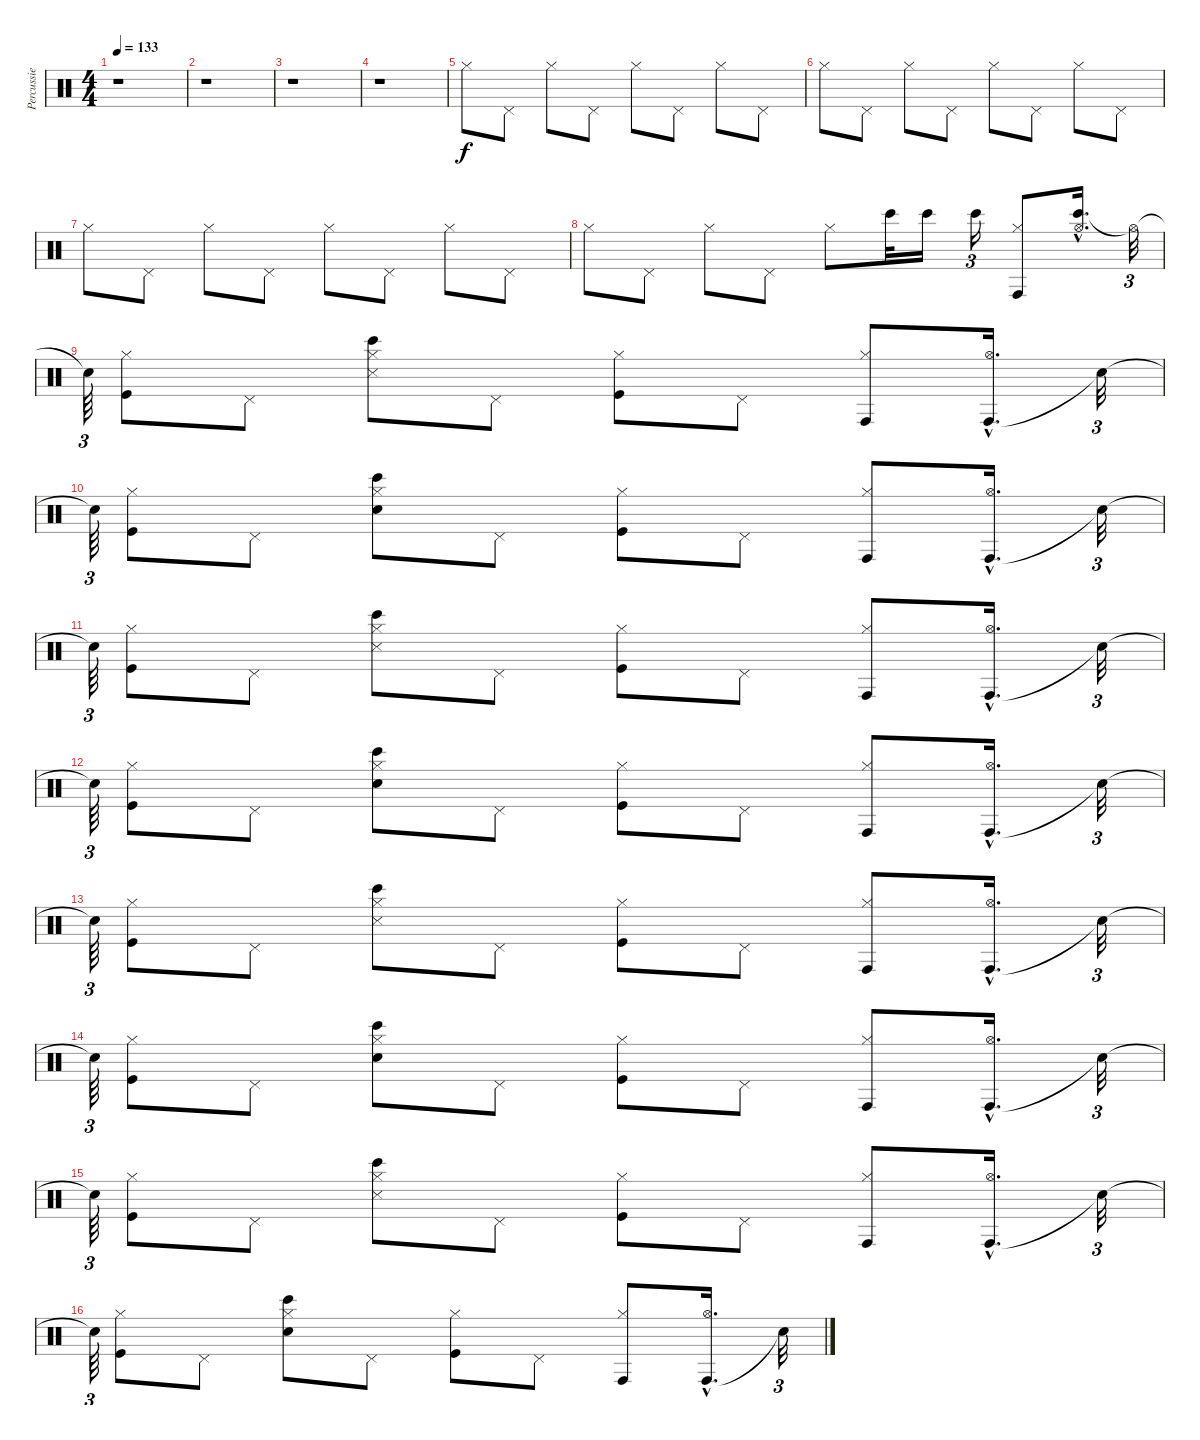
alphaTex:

\track ("Percussie" "Percussie") {instrument percussion}
\staff {score}
\articulation defaults
\ts (4 4)
\tempo 133
\clef neutral
\ks c
r.1{dy f} |
r.1 |
r.1 |
r.1 |
"Hi-Hat (closed)".8 "Pedal Hi-Hat (hit)".8 "Hi-Hat (closed)".8 "Pedal Hi-Hat (hit)".8 "Hi-Hat (closed)".8 "Pedal Hi-Hat (hit)".8 "Hi-Hat (closed)".8 "Pedal Hi-Hat (hit)".8 |
"Hi-Hat (closed)".8 "Pedal Hi-Hat (hit)".8 "Hi-Hat (closed)".8 "Pedal Hi-Hat (hit)".8 "Hi-Hat (closed)".8 "Pedal Hi-Hat (hit)".8 "Hi-Hat (closed)".8 "Pedal Hi-Hat (hit)".8 |
"Hi-Hat (closed)".8 "Pedal Hi-Hat (hit)".8 "Hi-Hat (closed)".8 "Pedal Hi-Hat (hit)".8 "Hi-Hat (closed)".8 "Pedal Hi-Hat (hit)".8 "Hi-Hat (closed)".8 "Pedal Hi-Hat (hit)".8 |
"Hi-Hat (closed)".8 "Pedal Hi-Hat (hit)".8 "Hi-Hat (closed)".8 "Pedal Hi-Hat (hit)".8 "Hi-Hat (closed)".8 "Bongo High (hit)".32 "Bongo High (hit)".16 "Bongo High (hit)".16{tu (3 2)} ("Conga high (hit)" "Hi-Hat (closed)").8 ("Bongo High (hit)"{hac} "Hi-Hat (open)"{hac}).16{d} "Hi-Hat (open)"{t}.32{tu (3 2)} |
"Snare (hit)"{t}.64{tu (3 2)} ("Kick (hit)" "Hi-Hat (closed)").8 "Pedal Hi-Hat (hit)".8 ("Bongo High (hit)" "Snare (side stick) 3" "Hi-Hat (closed)").8 "Pedal Hi-Hat (hit)".8 ("Kick (hit)" "Hi-Hat (closed)").8 "Pedal Hi-Hat (hit)".8 ("Conga high (hit)" "Hi-Hat (closed)").8 ("Conga high (hit)"{hac} "Hi-Hat (open)"{hac}).16{d} "Snare (hit)"{t}.32{tu (3 2)} |
"Snare (hit)"{t}.64{tu (3 2)} ("Kick (hit)" "Hi-Hat (closed)").8 "Pedal Hi-Hat (hit)".8 ("Bongo High (hit)" "Hand Clap (hit)" "Hi-Hat (closed)").8 "Pedal Hi-Hat (hit)".8 ("Kick (hit)" "Hi-Hat (closed)").8 "Pedal Hi-Hat (hit)".8 ("Conga high (hit)" "Hi-Hat (closed)").8 ("Conga high (hit)"{hac} "Hi-Hat (open)"{hac}).16{d} "Snare (hit)"{t}.32{tu (3 2)} |
"Snare (hit)"{t}.64{tu (3 2)} ("Kick (hit)" "Hi-Hat (closed)").8 "Pedal Hi-Hat (hit)".8 ("Bongo High (hit)" "Snare (side stick) 3" "Hi-Hat (closed)").8 "Pedal Hi-Hat (hit)".8 ("Kick (hit)" "Hi-Hat (closed)").8 "Pedal Hi-Hat (hit)".8 ("Conga high (hit)" "Hi-Hat (closed)").8 ("Conga high (hit)"{hac} "Hi-Hat (open)"{hac}).16{d} "Snare (hit)"{t}.32{tu (3 2)} |
"Snare (hit)"{t}.64{tu (3 2)} ("Kick (hit)" "Hi-Hat (closed)").8 "Pedal Hi-Hat (hit)".8 ("Bongo High (hit)" "Hand Clap (hit)" "Hi-Hat (closed)").8 "Pedal Hi-Hat (hit)".8 ("Kick (hit)" "Hi-Hat (closed)").8 "Pedal Hi-Hat (hit)".8 ("Conga high (hit)" "Hi-Hat (closed)").8 ("Conga high (hit)"{hac} "Hi-Hat (open)"{hac}).16{d} "Snare (hit)"{t}.32{tu (3 2)} |
"Snare (hit)"{t}.64{tu (3 2)} ("Kick (hit)" "Hi-Hat (closed)").8 "Pedal Hi-Hat (hit)".8 ("Bongo High (hit)" "Snare (side stick) 3" "Hi-Hat (closed)").8 "Pedal Hi-Hat (hit)".8 ("Kick (hit)" "Hi-Hat (closed)").8 "Pedal Hi-Hat (hit)".8 ("Conga high (hit)" "Hi-Hat (closed)").8 ("Conga high (hit)"{hac} "Hi-Hat (open)"{hac}).16{d} "Snare (hit)"{t}.32{tu (3 2)} |
"Snare (hit)"{t}.64{tu (3 2)} ("Kick (hit)" "Hi-Hat (closed)").8 "Pedal Hi-Hat (hit)".8 ("Bongo High (hit)" "Hand Clap (hit)" "Hi-Hat (closed)").8 "Pedal Hi-Hat (hit)".8 ("Kick (hit)" "Hi-Hat (closed)").8 "Pedal Hi-Hat (hit)".8 ("Conga high (hit)" "Hi-Hat (closed)").8 ("Conga high (hit)"{hac} "Hi-Hat (open)"{hac}).16{d} "Snare (hit)"{t}.32{tu (3 2)} |
"Snare (hit)"{t}.64{tu (3 2)} ("Kick (hit)" "Hi-Hat (closed)").8 "Pedal Hi-Hat (hit)".8 ("Bongo High (hit)" "Snare (side stick) 3" "Hi-Hat (closed)").8 "Pedal Hi-Hat (hit)".8 ("Kick (hit)" "Hi-Hat (closed)").8 "Pedal Hi-Hat (hit)".8 ("Conga high (hit)" "Hi-Hat (closed)").8 ("Conga high (hit)"{hac} "Hi-Hat (open)"{hac}).16{d} "Snare (hit)"{t}.32{tu (3 2)} |
"Snare (hit)"{t}.64{tu (3 2)} ("Kick (hit)" "Hi-Hat (closed)").8 "Pedal Hi-Hat (hit)".8 ("Bongo High (hit)" "Hand Clap (hit)" "Hi-Hat (closed)").8 "Pedal Hi-Hat (hit)".8 ("Kick (hit)" "Hi-Hat (closed)").8 "Pedal Hi-Hat (hit)".8 ("Conga high (hit)" "Hi-Hat (closed)").8 ("Conga high (hit)"{hac} "Hi-Hat (open)"{hac}).16{d} "Snare (hit)"{t}.32{tu (3 2)}
